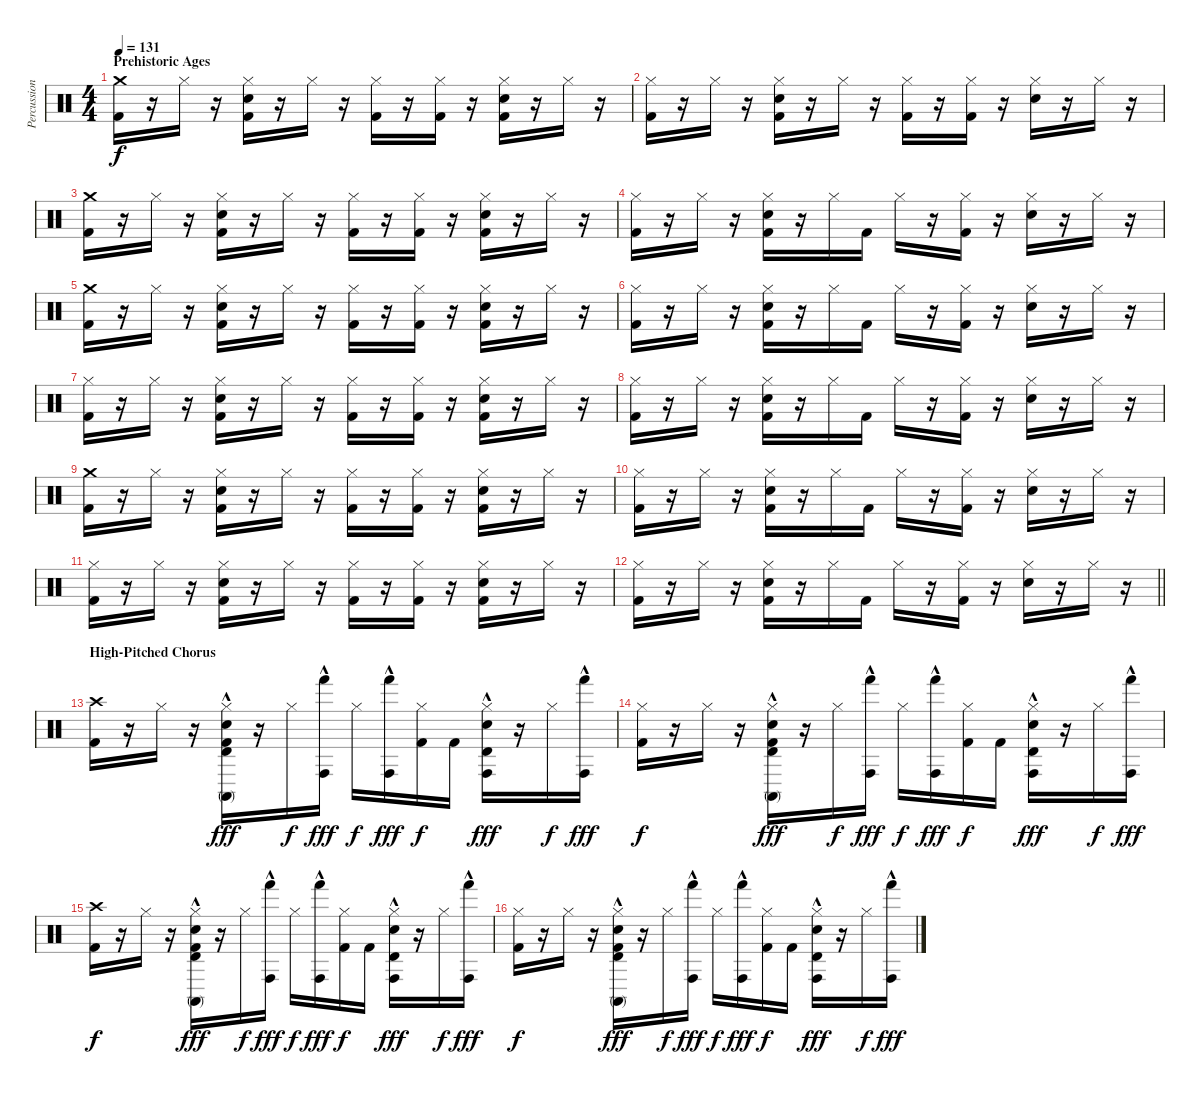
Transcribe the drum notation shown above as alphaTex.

\track ("Percussion" "Percussion") {instrument percussion}
\staff {score}
\articulation defaults
\ts (4 4)
\section ("" "Prehistoric Ages")
\tempo 131
\clef neutral
\ks c
("Crash medium (hit)" "Kick (hit) 2").16{dy f} r.16 "Hi-Hat (closed)".16 r.16 ("Hi-Hat (closed)" "Electric Snare (hit)" "Kick (hit) 2").16 r.16 "Hi-Hat (closed)".16 r.16 ("Hi-Hat (closed)" "Kick (hit) 2").16 r.16 ("Hi-Hat (closed)" "Kick (hit) 2").16 r.16 ("Hi-Hat (closed)" "Electric Snare (hit)" "Kick (hit) 2").16 r.16 "Hi-Hat (closed)".16 r.16 |
("Hi-Hat (closed)" "Kick (hit) 2").16 r.16 "Hi-Hat (closed)".16 r.16 ("Hi-Hat (closed)" "Electric Snare (hit)" "Kick (hit) 2").16 r.16 "Hi-Hat (closed)".16 r.16 ("Hi-Hat (closed)" "Kick (hit) 2").16 r.16 ("Hi-Hat (closed)" "Kick (hit) 2").16 r.16 ("Hi-Hat (closed)" "Electric Snare (hit)").16 r.16 "Hi-Hat (closed)".16 r.16 |
("Crash medium (hit)" "Kick (hit) 2").16 r.16 "Hi-Hat (closed)".16 r.16 ("Hi-Hat (closed)" "Electric Snare (hit)" "Kick (hit) 2").16 r.16 "Hi-Hat (closed)".16 r.16 ("Hi-Hat (closed)" "Kick (hit) 2").16 r.16 ("Hi-Hat (closed)" "Kick (hit) 2").16 r.16 ("Hi-Hat (closed)" "Electric Snare (hit)" "Kick (hit) 2").16 r.16 "Hi-Hat (closed)".16 r.16 |
("Hi-Hat (closed)" "Kick (hit) 2").16 r.16 "Hi-Hat (closed)".16 r.16 ("Hi-Hat (closed)" "Electric Snare (hit)" "Kick (hit) 2").16 r.16 "Hi-Hat (closed)".16 "Kick (hit) 2".16 "Hi-Hat (closed)".16 r.16 ("Hi-Hat (closed)" "Kick (hit) 2").16 r.16 ("Hi-Hat (closed)" "Electric Snare (hit)").16 r.16 "Hi-Hat (closed)".16 r.16 |
("Crash medium (hit)" "Kick (hit) 2").16 r.16 "Hi-Hat (closed)".16 r.16 ("Hi-Hat (closed)" "Electric Snare (hit)" "Kick (hit) 2").16 r.16 "Hi-Hat (closed)".16 r.16 ("Hi-Hat (closed)" "Kick (hit) 2").16 r.16 ("Hi-Hat (closed)" "Kick (hit) 2").16 r.16 ("Hi-Hat (closed)" "Electric Snare (hit)" "Kick (hit) 2").16 r.16 "Hi-Hat (closed)".16 r.16 |
("Hi-Hat (closed)" "Kick (hit) 2").16 r.16 "Hi-Hat (closed)".16 r.16 ("Hi-Hat (closed)" "Electric Snare (hit)" "Kick (hit) 2").16 r.16 "Hi-Hat (closed)".16 "Kick (hit) 2".16 "Hi-Hat (closed)".16 r.16 ("Hi-Hat (closed)" "Kick (hit) 2").16 r.16 ("Hi-Hat (closed)" "Electric Snare (hit)").16 r.16 "Hi-Hat (closed)".16 r.16 |
("Hi-Hat (closed)" "Kick (hit) 2").16 r.16 "Hi-Hat (closed)".16 r.16 ("Hi-Hat (closed)" "Electric Snare (hit)" "Kick (hit) 2").16 r.16 "Hi-Hat (closed)".16 r.16 ("Hi-Hat (closed)" "Kick (hit) 2").16 r.16 ("Hi-Hat (closed)" "Kick (hit) 2").16 r.16 ("Hi-Hat (closed)" "Electric Snare (hit)" "Kick (hit) 2").16 r.16 "Hi-Hat (closed)".16 r.16 |
("Hi-Hat (closed)" "Kick (hit) 2").16 r.16 "Hi-Hat (closed)".16 r.16 ("Hi-Hat (closed)" "Electric Snare (hit)" "Kick (hit) 2").16 r.16 "Hi-Hat (closed)".16 "Kick (hit) 2".16 "Hi-Hat (closed)".16 r.16 ("Hi-Hat (closed)" "Kick (hit) 2").16 r.16 ("Hi-Hat (closed)" "Electric Snare (hit)").16 r.16 "Hi-Hat (closed)".16 r.16 |
("Crash medium (hit)" "Kick (hit) 2").16 r.16 "Hi-Hat (closed)".16 r.16 ("Hi-Hat (closed)" "Electric Snare (hit)" "Kick (hit) 2").16 r.16 "Hi-Hat (closed)".16 r.16 ("Hi-Hat (closed)" "Kick (hit) 2").16 r.16 ("Hi-Hat (closed)" "Kick (hit) 2").16 r.16 ("Hi-Hat (closed)" "Electric Snare (hit)" "Kick (hit) 2").16 r.16 "Hi-Hat (closed)".16 r.16 |
("Hi-Hat (closed)" "Kick (hit) 2").16 r.16 "Hi-Hat (closed)".16 r.16 ("Hi-Hat (closed)" "Electric Snare (hit)" "Kick (hit) 2").16 r.16 "Hi-Hat (closed)".16 "Kick (hit) 2".16 "Hi-Hat (closed)".16 r.16 ("Hi-Hat (closed)" "Kick (hit) 2").16 r.16 ("Hi-Hat (closed)" "Electric Snare (hit)").16 r.16 "Hi-Hat (closed)".16 r.16 |
("Hi-Hat (closed)" "Kick (hit) 2").16 r.16 "Hi-Hat (closed)".16 r.16 ("Hi-Hat (closed)" "Electric Snare (hit)" "Kick (hit) 2").16 r.16 "Hi-Hat (closed)".16 r.16 ("Hi-Hat (closed)" "Kick (hit) 2").16 r.16 ("Hi-Hat (closed)" "Kick (hit) 2").16 r.16 ("Hi-Hat (closed)" "Electric Snare (hit)" "Kick (hit) 2").16 r.16 "Hi-Hat (closed)".16 r.16 |
\barLineRight lightlight
("Hi-Hat (closed)" "Kick (hit) 2").16 r.16 "Hi-Hat (closed)".16 r.16 ("Hi-Hat (closed)" "Electric Snare (hit)" "Kick (hit) 2").16 r.16 "Hi-Hat (closed)".16 "Kick (hit) 2".16 "Hi-Hat (closed)".16 r.16 ("Hi-Hat (closed)" "Kick (hit) 2").16 r.16 ("Hi-Hat (closed)" "Electric Snare (hit)").16 r.16 "Hi-Hat (closed)".16 r.16 |
\section ("" "High-Pitched Chorus")
("Crash high (hit)" "Kick (hit) 2").16 r.16 "Hi-Hat (closed)".16 r.16 ("Hi-Hat (closed)" "Conga high (mute)"{hac} "Timbale high (hit)" "Electric Snare (hit)" "Kick (hit) 2").16{dy fff} r.16 "Hi-Hat (closed)".16{dy f} ("Conga high (hit)"{hac} "Hand (hit)"{hac}).16{dy fff} "Hi-Hat (closed)".16{dy f} ("Conga high (hit)"{hac} "Hand (hit)"{hac}).16{dy fff} ("Hi-Hat (closed)" "Kick (hit) 2").16{dy f} "Kick (hit) 2".16 ("Hi-Hat (closed)" "Conga high (hit)"{hac} "Timbale high (hit)" "Electric Snare (hit)").16{dy fff} r.16 "Hi-Hat (closed)".16{dy f} ("Conga high (hit)"{hac} "Hand (hit)"{hac}).16{dy fff} |
("Hi-Hat (closed)" "Kick (hit) 2").16{dy f} r.16 "Hi-Hat (closed)".16 r.16 ("Hi-Hat (closed)" "Conga high (mute)"{hac} "Timbale high (hit)" "Electric Snare (hit)" "Kick (hit) 2").16{dy fff} r.16 "Hi-Hat (closed)".16{dy f} ("Conga high (hit)"{hac} "Hand (hit)"{hac}).16{dy fff} "Hi-Hat (closed)".16{dy f} ("Conga high (hit)"{hac} "Hand (hit)"{hac}).16{dy fff} ("Hi-Hat (closed)" "Kick (hit) 2").16{dy f} "Kick (hit) 2".16 ("Hi-Hat (closed)" "Conga high (hit)"{hac} "Timbale high (hit)" "Electric Snare (hit)").16{dy fff} r.16 "Hi-Hat (closed)".16{dy f} ("Conga high (hit)"{hac} "Hand (hit)"{hac}).16{dy fff} |
("Crash high (hit)" "Kick (hit) 2").16{dy f} r.16 "Hi-Hat (closed)".16 r.16 ("Hi-Hat (closed)" "Conga high (mute)"{hac} "Timbale high (hit)" "Electric Snare (hit)" "Kick (hit) 2").16{dy fff} r.16 "Hi-Hat (closed)".16{dy f} ("Conga high (hit)"{hac} "Hand (hit)"{hac}).16{dy fff} "Hi-Hat (closed)".16{dy f} ("Conga high (hit)"{hac} "Hand (hit)"{hac}).16{dy fff} ("Hi-Hat (closed)" "Kick (hit) 2").16{dy f} "Kick (hit) 2".16 ("Hi-Hat (closed)" "Conga high (hit)"{hac} "Timbale high (hit)" "Electric Snare (hit)").16{dy fff} r.16 "Hi-Hat (closed)".16{dy f} ("Conga high (hit)"{hac} "Hand (hit)"{hac}).16{dy fff} |
("Hi-Hat (closed)" "Kick (hit) 2").16{dy f} r.16 "Hi-Hat (closed)".16 r.16 ("Hi-Hat (closed)" "Conga high (mute)"{hac} "Timbale high (hit)" "Electric Snare (hit)" "Kick (hit) 2").16{dy fff} r.16 "Hi-Hat (closed)".16{dy f} ("Conga high (hit)"{hac} "Hand (hit)"{hac}).16{dy fff} "Hi-Hat (closed)".16{dy f} ("Conga high (hit)"{hac} "Hand (hit)"{hac}).16{dy fff} ("Hi-Hat (closed)" "Kick (hit) 2").16{dy f} "Kick (hit) 2".16 ("Hi-Hat (closed)" "Conga high (hit)"{hac} "Timbale high (hit)" "Electric Snare (hit)").16{dy fff} r.16 "Hi-Hat (closed)".16{dy f} ("Conga high (hit)"{hac} "Hand (hit)"{hac}).16{dy fff}
